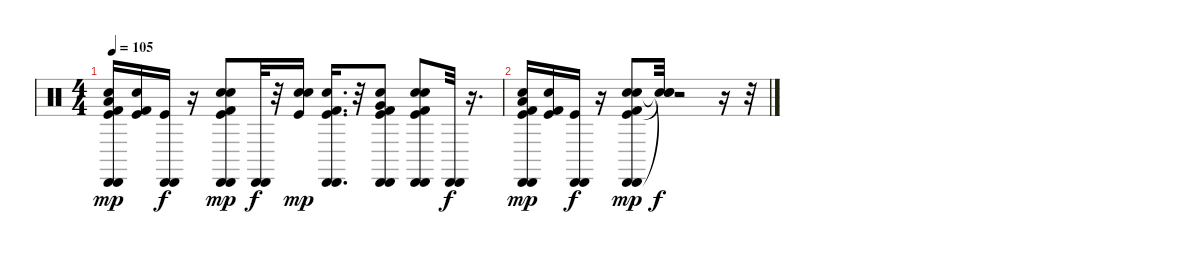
\track "" {instrument percussion}
\staff {score}
\articulation defaults
\ts (4 4)
\tempo 105
\clef neutral
\ks c
("Cabasa (hit)" "Kick (hit) 2" "Kick (hit)" "Cabasa (hit)" "Electric Snare (hit)" "Low Floor Tom (hit)").16{dy mp volume 8} ("Snare (hit) 2" "Kick (hit)" "Kick (hit) 2").16 ("Cabasa (hit)" "Cabasa (hit)" "Kick (hit)").16{dy f volume 7} r.16 ("Electric Snare (hit)" "Cabasa (hit)" "Cabasa (hit)" "Kick (hit) 2" "Kick (hit)" "Snare (hit) 2").8{dy mp volume 7} ("Cabasa (hit)" "Cabasa (hit)").32{dy f volume 7} r.32 ("Kick (hit)" "Electric Snare (hit)" "Snare (hit) 2").16{dy mp} ("Kick (hit)" "Snare (hit) 2" "Kick (hit) 2" "Cabasa (hit)" "Cabasa (hit)").16{d} r.32 ("Kick (hit) 2" "Snare (hit) 2" "Kick (hit)" "Cabasa (hit)" "Very Low Tom (hit)" "Cabasa (hit)").8{volume 6} ("Kick (hit)" "Snare (hit) 2" "Cabasa (hit)" "Kick (hit) 2" "Electric Snare (hit)" "Cabasa (hit)").8{volume 6} ("Cabasa (hit)" "Cabasa (hit)").32{dy f volume 6} r.16{d} |
("Kick (hit) 2" "Cabasa (hit)" "Kick (hit)" "Cabasa (hit)" "Low Floor Tom (hit)" "Electric Snare (hit)").16{dy mp} ("Kick (hit) 2" "Kick (hit)" "Snare (hit) 2").16{volume 5} ("Kick (hit)" "Cabasa (hit)" "Cabasa (hit)").16{dy f} r.16 ("Snare (hit) 2" "Cabasa (hit)" "Kick (hit)" "Electric Snare (hit)" "Cabasa (hit)" "Kick (hit) 2").8{dy mp volume 5} ("Snare (hit)"{t} "Snare (hit)"{t} "Snare (hit)"{t}).32{dy f} r.2 r.16 r.32
